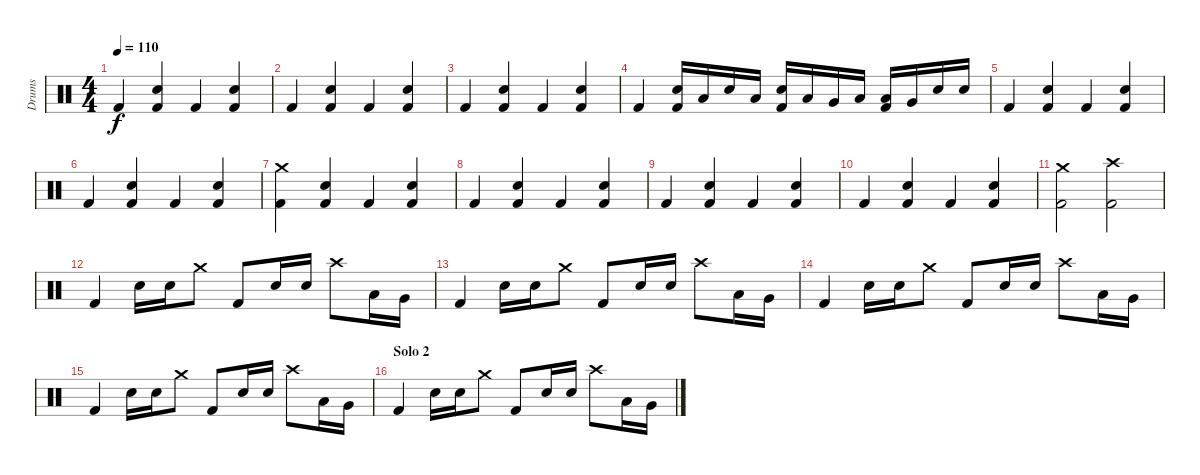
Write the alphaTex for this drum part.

\track ("Drums" "Drums") {instrument percussion}
\staff {score}
\articulation defaults
\ts (4 4)
\tempo 110
\clef neutral
\ks c "Kick (hit) 2".4{dy f}
("Snare (hit) 2" "Kick (hit) 2").4 "Kick (hit) 2".4 ("Snare (hit) 2" "Kick (hit) 2").4 |
"Kick (hit) 2".4 ("Snare (hit) 2" "Kick (hit) 2").4 "Kick (hit) 2".4 ("Snare (hit) 2" "Kick (hit) 2").4 |
"Kick (hit) 2".4 ("Snare (hit) 2" "Kick (hit) 2").4 "Kick (hit) 2".4 ("Snare (hit) 2" "Kick (hit) 2").4 |
"Kick (hit) 2".4 ("Snare (hit) 2" "Kick (hit) 2").16 "Low Floor Tom (hit)".16 "Snare (hit) 2".16 "Low Tom (hit)".16 ("Snare (hit) 2" "Kick (hit) 2").16 "Low Tom (hit)".16 "Very Low Tom (hit)".16 "Low Tom (hit)".16 ("Low Floor Tom (hit)" "Kick (hit) 2").16 "Very Low Tom (hit)".16 "Snare (hit) 2".16 "Snare (hit) 2".16 |
"Kick (hit) 2".4 ("Snare (hit) 2" "Kick (hit) 2").4 "Kick (hit) 2".4 ("Snare (hit) 2" "Kick (hit) 2").4 |
"Kick (hit) 2".4 ("Snare (hit) 2" "Kick (hit) 2").4 "Kick (hit) 2".4 ("Snare (hit) 2" "Kick (hit) 2").4 |
("Crash medium (hit)" "Kick (hit) 2").4 ("Snare (hit) 2" "Kick (hit) 2").4 "Kick (hit) 2".4 ("Snare (hit) 2" "Kick (hit) 2").4 |
"Kick (hit) 2".4 ("Snare (hit) 2" "Kick (hit) 2").4 "Kick (hit) 2".4 ("Snare (hit) 2" "Kick (hit) 2").4 |
"Kick (hit) 2".4 ("Snare (hit) 2" "Kick (hit) 2").4 "Kick (hit) 2".4 ("Snare (hit) 2" "Kick (hit) 2").4 |
"Kick (hit) 2".4 ("Snare (hit) 2" "Kick (hit) 2").4 "Kick (hit) 2".4 ("Snare (hit) 2" "Kick (hit) 2").4 |
("Crash medium (hit)" "Kick (hit) 2").2 ("Crash high (hit)" "Kick (hit) 2").2 |
"Kick (hit) 2".4 "Snare (hit) 2".16 "Snare (hit) 2".16 "Crash medium (hit)".8 "Kick (hit) 2".8 "Snare (hit) 2".16 "Snare (hit) 2".16 "Crash high (hit)".8 "Low Tom (hit)".16 "Very Low Tom (hit)".16 |
"Kick (hit) 2".4 "Snare (hit) 2".16 "Snare (hit) 2".16 "Crash medium (hit)".8 "Kick (hit) 2".8 "Snare (hit) 2".16 "Snare (hit) 2".16 "Crash high (hit)".8 "Low Tom (hit)".16 "Very Low Tom (hit)".16 |
"Kick (hit) 2".4 "Snare (hit) 2".16 "Snare (hit) 2".16 "Crash medium (hit)".8 "Kick (hit) 2".8 "Snare (hit) 2".16 "Snare (hit) 2".16 "Crash high (hit)".8 "Low Tom (hit)".16 "Very Low Tom (hit)".16 |
"Kick (hit) 2".4 "Snare (hit) 2".16 "Snare (hit) 2".16 "Crash medium (hit)".8 "Kick (hit) 2".8 "Snare (hit) 2".16 "Snare (hit) 2".16 "Crash high (hit)".8 "Low Tom (hit)".16 "Very Low Tom (hit)".16 |
\section ("" "Solo 2")
"Kick (hit) 2".4 "Snare (hit) 2".16 "Snare (hit) 2".16 "Crash medium (hit)".8 "Kick (hit) 2".8 "Snare (hit) 2".16 "Snare (hit) 2".16 "Crash high (hit)".8 "Low Tom (hit)".16 "Very Low Tom (hit)".16
